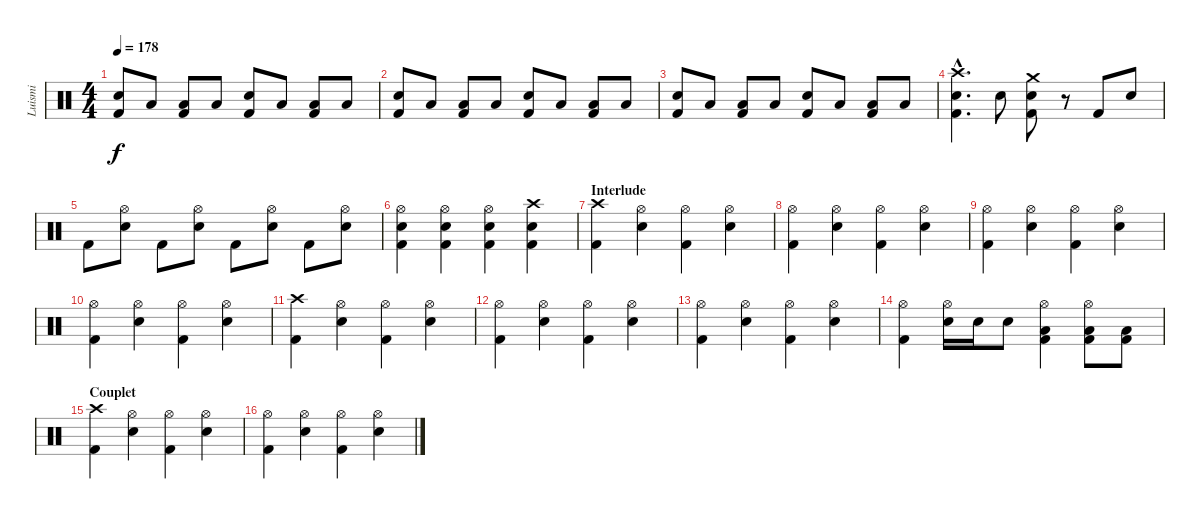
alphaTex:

\track ("Luismi" "Luismi") {instrument percussion}
\staff {score}
\articulation defaults
\ts (4 4)
\tempo 178
\clef neutral
\ks c
("Snare (hit) 2" "Kick (hit) 2").8{dy f} "Low Tom (hit)".8 ("Low Floor Tom (hit)" "Kick (hit) 2").8 "Low Floor Tom (hit)".8 ("Snare (hit) 2" "Kick (hit) 2").8 "Low Tom (hit)".8 ("Low Floor Tom (hit)" "Kick (hit) 2").8 "Low Floor Tom (hit)".8 |
("Snare (hit) 2" "Kick (hit) 2").8 "Low Tom (hit)".8 ("Low Floor Tom (hit)" "Kick (hit) 2").8 "Low Floor Tom (hit)".8 ("Snare (hit) 2" "Kick (hit) 2").8 "Low Tom (hit)".8 ("Low Floor Tom (hit)" "Kick (hit) 2").8 "Low Floor Tom (hit)".8 |
("Snare (hit) 2" "Kick (hit) 2").8 "Low Tom (hit)".8 ("Low Floor Tom (hit)" "Kick (hit) 2").8 "Low Floor Tom (hit)".8 ("Snare (hit) 2" "Kick (hit) 2").8 "Low Tom (hit)".8 ("Low Floor Tom (hit)" "Kick (hit) 2").8 "Low Floor Tom (hit)".8 |
("Crash high (hit)"{hac} "Snare (hit) 2"{hac} "Kick (hit) 2"{hac}).4{d} "Snare (hit) 2".8 ("Crash medium (hit)" "Snare (hit) 2" "Kick (hit) 2").8 r.8 "Kick (hit) 2".8 "Snare (hit) 2".8 |
"Kick (hit) 2".8 ("Hi-Hat (open)" "Snare (hit) 2").8 "Kick (hit) 2".8 ("Hi-Hat (open)" "Snare (hit) 2").8 "Kick (hit) 2".8 ("Hi-Hat (open)" "Snare (hit) 2").8 "Kick (hit) 2".8 ("Hi-Hat (open)" "Snare (hit) 2").8 |
("Hi-Hat (open)" "Snare (hit) 2" "Kick (hit) 2").4 ("Hi-Hat (open)" "Snare (hit) 2" "Kick (hit) 2").4 ("Hi-Hat (open)" "Snare (hit) 2" "Kick (hit) 2").4 ("Crash high (hit)" "Snare (hit) 2" "Kick (hit) 2").4 |
\section ("" "Interlude")
("Crash high (hit)" "Kick (hit) 2").4 ("Hi-Hat (open)" "Snare (hit) 2").4 ("Hi-Hat (open)" "Kick (hit) 2").4 ("Hi-Hat (open)" "Snare (hit) 2").4 |
("Hi-Hat (open)" "Kick (hit) 2").4 ("Hi-Hat (open)" "Snare (hit) 2").4 ("Hi-Hat (open)" "Kick (hit) 2").4 ("Hi-Hat (open)" "Snare (hit) 2").4 |
("Hi-Hat (open)" "Kick (hit) 2").4 ("Hi-Hat (open)" "Snare (hit) 2").4 ("Hi-Hat (open)" "Kick (hit) 2").4 ("Hi-Hat (open)" "Snare (hit) 2").4 |
("Hi-Hat (open)" "Kick (hit) 2").4 ("Hi-Hat (open)" "Snare (hit) 2").4 ("Hi-Hat (open)" "Kick (hit) 2").4 ("Hi-Hat (open)" "Snare (hit) 2").4 |
("Crash high (hit)" "Kick (hit) 2").4 ("Hi-Hat (open)" "Snare (hit) 2").4 ("Hi-Hat (open)" "Kick (hit) 2").4 ("Hi-Hat (open)" "Snare (hit) 2").4 |
("Hi-Hat (open)" "Kick (hit) 2").4 ("Hi-Hat (open)" "Snare (hit) 2").4 ("Hi-Hat (open)" "Kick (hit) 2").4 ("Hi-Hat (open)" "Snare (hit) 2").4 |
("Hi-Hat (open)" "Kick (hit) 2").4 ("Hi-Hat (open)" "Snare (hit) 2").4 ("Hi-Hat (open)" "Kick (hit) 2").4 ("Hi-Hat (open)" "Snare (hit) 2").4 |
("Hi-Hat (open)" "Kick (hit) 2").4 ("Hi-Hat (open)" "Snare (hit) 2").16 "Snare (hit) 2".16 "Snare (hit) 2".8 ("Hi-Hat (open)" "Low Floor Tom (hit)" "Kick (hit) 2").4 ("Hi-Hat (open)" "Low Tom (hit)" "Kick (hit) 2").8 ("Low Floor Tom (hit)" "Kick (hit) 2").8 |
\section ("" "Couplet")
("Crash high (hit)" "Kick (hit) 2").4 ("Hi-Hat (open)" "Snare (hit) 2").4 ("Hi-Hat (open)" "Kick (hit) 2").4 ("Hi-Hat (open)" "Snare (hit) 2").4 |
("Hi-Hat (open)" "Kick (hit) 2").4 ("Hi-Hat (open)" "Snare (hit) 2").4 ("Hi-Hat (open)" "Kick (hit) 2").4 ("Hi-Hat (open)" "Snare (hit) 2").4
